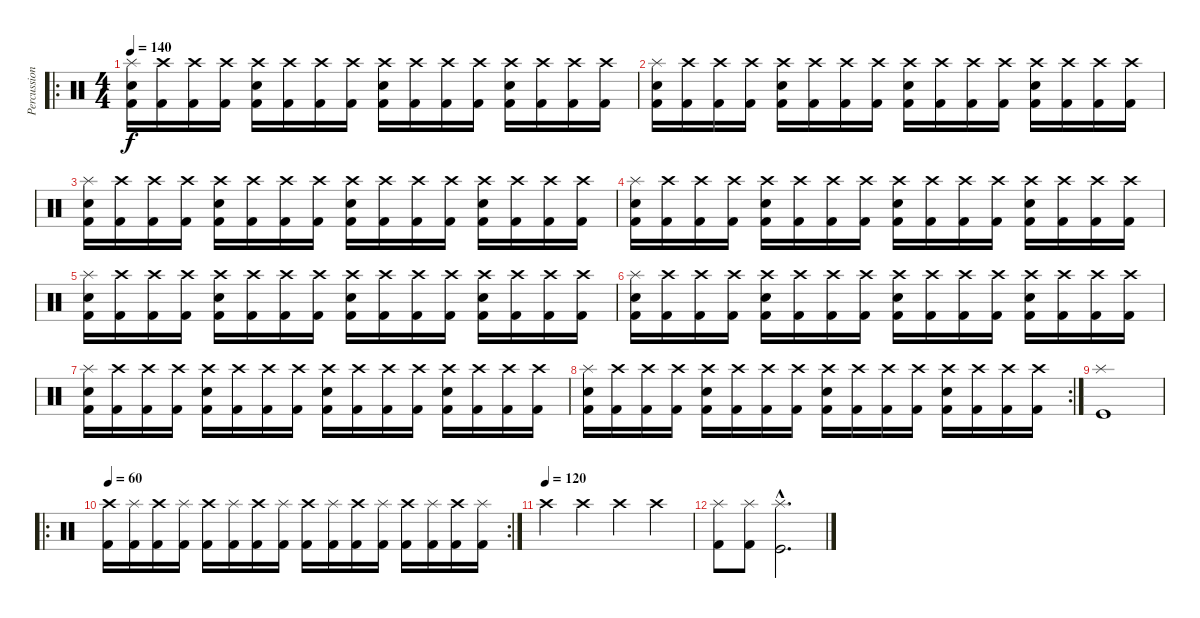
\track ("Percussion" "Percussion") {instrument percussion}
\staff {score}
\articulation defaults
\ro
\ts (4 4)
\tempo 140
\clef neutral
\ks c
("Snare (hit) 2" "Splash (hit)" "Kick (hit) 2").16{dy f} ("Crash high (hit)" "Kick (hit) 2").16 ("Crash high (hit)" "Kick (hit) 2").16 ("Crash high (hit)" "Kick (hit) 2").16 ("Crash high (hit)" "Snare (hit) 2" "Kick (hit) 2").16 ("Crash high (hit)" "Kick (hit) 2").16 ("Crash high (hit)" "Kick (hit) 2").16 ("Crash high (hit)" "Kick (hit) 2").16 ("Crash high (hit)" "Snare (hit) 2" "Kick (hit) 2").16 ("Crash high (hit)" "Kick (hit) 2").16 ("Crash high (hit)" "Kick (hit) 2").16 ("Crash high (hit)" "Kick (hit) 2").16 ("Crash high (hit)" "Snare (hit) 2" "Kick (hit) 2").16 ("Crash high (hit)" "Kick (hit) 2").16 ("Crash high (hit)" "Kick (hit) 2").16 ("Crash high (hit)" "Kick (hit) 2").16 |
("Snare (hit) 2" "Splash (hit)" "Kick (hit) 2").16 ("Crash high (hit)" "Kick (hit) 2").16 ("Crash high (hit)" "Kick (hit) 2").16 ("Crash high (hit)" "Kick (hit) 2").16 ("Crash high (hit)" "Snare (hit) 2" "Kick (hit) 2").16 ("Crash high (hit)" "Kick (hit) 2").16 ("Crash high (hit)" "Kick (hit) 2").16 ("Crash high (hit)" "Kick (hit) 2").16 ("Crash high (hit)" "Snare (hit) 2" "Kick (hit) 2").16 ("Crash high (hit)" "Kick (hit) 2").16 ("Crash high (hit)" "Kick (hit) 2").16 ("Crash high (hit)" "Kick (hit) 2").16 ("Crash high (hit)" "Snare (hit) 2" "Kick (hit) 2").16 ("Crash high (hit)" "Kick (hit) 2").16 ("Crash high (hit)" "Kick (hit) 2").16 ("Crash high (hit)" "Kick (hit) 2").16 |
("Snare (hit) 2" "Splash (hit)" "Kick (hit) 2").16 ("Crash high (hit)" "Kick (hit) 2").16 ("Crash high (hit)" "Kick (hit) 2").16 ("Crash high (hit)" "Kick (hit) 2").16 ("Crash high (hit)" "Snare (hit) 2" "Kick (hit) 2").16 ("Crash high (hit)" "Kick (hit) 2").16 ("Crash high (hit)" "Kick (hit) 2").16 ("Crash high (hit)" "Kick (hit) 2").16 ("Crash high (hit)" "Snare (hit) 2" "Kick (hit) 2").16 ("Crash high (hit)" "Kick (hit) 2").16 ("Crash high (hit)" "Kick (hit) 2").16 ("Crash high (hit)" "Kick (hit) 2").16 ("Crash high (hit)" "Snare (hit) 2" "Kick (hit) 2").16 ("Crash high (hit)" "Kick (hit) 2").16 ("Crash high (hit)" "Kick (hit) 2").16 ("Crash high (hit)" "Kick (hit) 2").16 |
("Snare (hit) 2" "Splash (hit)" "Kick (hit) 2").16 ("Crash high (hit)" "Kick (hit) 2").16 ("Crash high (hit)" "Kick (hit) 2").16 ("Crash high (hit)" "Kick (hit) 2").16 ("Crash high (hit)" "Snare (hit) 2" "Kick (hit) 2").16 ("Crash high (hit)" "Kick (hit) 2").16 ("Crash high (hit)" "Kick (hit) 2").16 ("Crash high (hit)" "Kick (hit) 2").16 ("Crash high (hit)" "Snare (hit) 2" "Kick (hit) 2").16 ("Crash high (hit)" "Kick (hit) 2").16 ("Crash high (hit)" "Kick (hit) 2").16 ("Crash high (hit)" "Kick (hit) 2").16 ("Crash high (hit)" "Snare (hit) 2" "Kick (hit) 2").16 ("Crash high (hit)" "Kick (hit) 2").16 ("Crash high (hit)" "Kick (hit) 2").16 ("Crash high (hit)" "Kick (hit) 2").16 |
("Snare (hit) 2" "Splash (hit)" "Kick (hit) 2").16 ("Crash high (hit)" "Kick (hit) 2").16 ("Crash high (hit)" "Kick (hit) 2").16 ("Crash high (hit)" "Kick (hit) 2").16 ("Crash high (hit)" "Snare (hit) 2" "Kick (hit) 2").16 ("Crash high (hit)" "Kick (hit) 2").16 ("Crash high (hit)" "Kick (hit) 2").16 ("Crash high (hit)" "Kick (hit) 2").16 ("Crash high (hit)" "Snare (hit) 2" "Kick (hit) 2").16 ("Crash high (hit)" "Kick (hit) 2").16 ("Crash high (hit)" "Kick (hit) 2").16 ("Crash high (hit)" "Kick (hit) 2").16 ("Crash high (hit)" "Snare (hit) 2" "Kick (hit) 2").16 ("Crash high (hit)" "Kick (hit) 2").16 ("Crash high (hit)" "Kick (hit) 2").16 ("Crash high (hit)" "Kick (hit) 2").16 |
("Snare (hit) 2" "Splash (hit)" "Kick (hit) 2").16 ("Crash high (hit)" "Kick (hit) 2").16 ("Crash high (hit)" "Kick (hit) 2").16 ("Crash high (hit)" "Kick (hit) 2").16 ("Crash high (hit)" "Snare (hit) 2" "Kick (hit) 2").16 ("Crash high (hit)" "Kick (hit) 2").16 ("Crash high (hit)" "Kick (hit) 2").16 ("Crash high (hit)" "Kick (hit) 2").16 ("Crash high (hit)" "Snare (hit) 2" "Kick (hit) 2").16 ("Crash high (hit)" "Kick (hit) 2").16 ("Crash high (hit)" "Kick (hit) 2").16 ("Crash high (hit)" "Kick (hit) 2").16 ("Crash high (hit)" "Snare (hit) 2" "Kick (hit) 2").16 ("Crash high (hit)" "Kick (hit) 2").16 ("Crash high (hit)" "Kick (hit) 2").16 ("Crash high (hit)" "Kick (hit) 2").16 |
("Snare (hit) 2" "Splash (hit)" "Kick (hit) 2").16 ("Crash high (hit)" "Kick (hit) 2").16 ("Crash high (hit)" "Kick (hit) 2").16 ("Crash high (hit)" "Kick (hit) 2").16 ("Crash high (hit)" "Snare (hit) 2" "Kick (hit) 2").16 ("Crash high (hit)" "Kick (hit) 2").16 ("Crash high (hit)" "Kick (hit) 2").16 ("Crash high (hit)" "Kick (hit) 2").16 ("Crash high (hit)" "Snare (hit) 2" "Kick (hit) 2").16 ("Crash high (hit)" "Kick (hit) 2").16 ("Crash high (hit)" "Kick (hit) 2").16 ("Crash high (hit)" "Kick (hit) 2").16 ("Crash high (hit)" "Snare (hit) 2" "Kick (hit) 2").16 ("Crash high (hit)" "Kick (hit) 2").16 ("Crash high (hit)" "Kick (hit) 2").16 ("Crash high (hit)" "Kick (hit) 2").16 |
\rc 2
("Snare (hit) 2" "Splash (hit)" "Kick (hit) 2").16 ("Crash high (hit)" "Kick (hit) 2").16 ("Crash high (hit)" "Kick (hit) 2").16 ("Crash high (hit)" "Kick (hit) 2").16 ("Crash high (hit)" "Snare (hit) 2" "Kick (hit) 2").16 ("Crash high (hit)" "Kick (hit) 2").16 ("Crash high (hit)" "Kick (hit) 2").16 ("Crash high (hit)" "Kick (hit) 2").16 ("Crash high (hit)" "Snare (hit) 2" "Kick (hit) 2").16 ("Crash high (hit)" "Kick (hit) 2").16 ("Crash high (hit)" "Kick (hit) 2").16 ("Crash high (hit)" "Kick (hit) 2").16 ("Crash high (hit)" "Snare (hit) 2" "Kick (hit) 2").16 ("Crash high (hit)" "Kick (hit) 2").16 ("Crash high (hit)" "Kick (hit) 2").16 ("Crash high (hit)" "Kick (hit) 2").16 |
("Splash (hit)" "Kick (hit)").1 |
\ro
\rc 2
\tempo 60
("Crash high (hit)" "Kick (hit) 2").16 ("Splash (hit)" "Kick (hit) 2").16 ("Crash high (hit)" "Kick (hit) 2").16 ("Splash (hit)" "Kick (hit) 2").16 ("Crash high (hit)" "Kick (hit) 2").16 ("Splash (hit)" "Kick (hit) 2").16 ("Crash high (hit)" "Kick (hit) 2").16 ("Splash (hit)" "Kick (hit) 2").16 ("Crash high (hit)" "Kick (hit) 2").16 ("Splash (hit)" "Kick (hit) 2").16 ("Crash high (hit)" "Kick (hit) 2").16 ("Splash (hit)" "Kick (hit) 2").16 ("Crash high (hit)" "Kick (hit) 2").16 ("Splash (hit)" "Kick (hit) 2").16 ("Crash high (hit)" "Kick (hit) 2").16 ("Splash (hit)" "Kick (hit) 2").16 |
\tempo (120)
"Crash high (hit)".4 "Crash high (hit)".4 "Crash high (hit)".4 "Crash high (hit)".4 |
("Splash (hit)" "Kick (hit) 2").8 ("Splash (hit)" "Kick (hit) 2").8 ("Splash (hit)"{hac} "Kick (hit)"{hac}).2{d}
